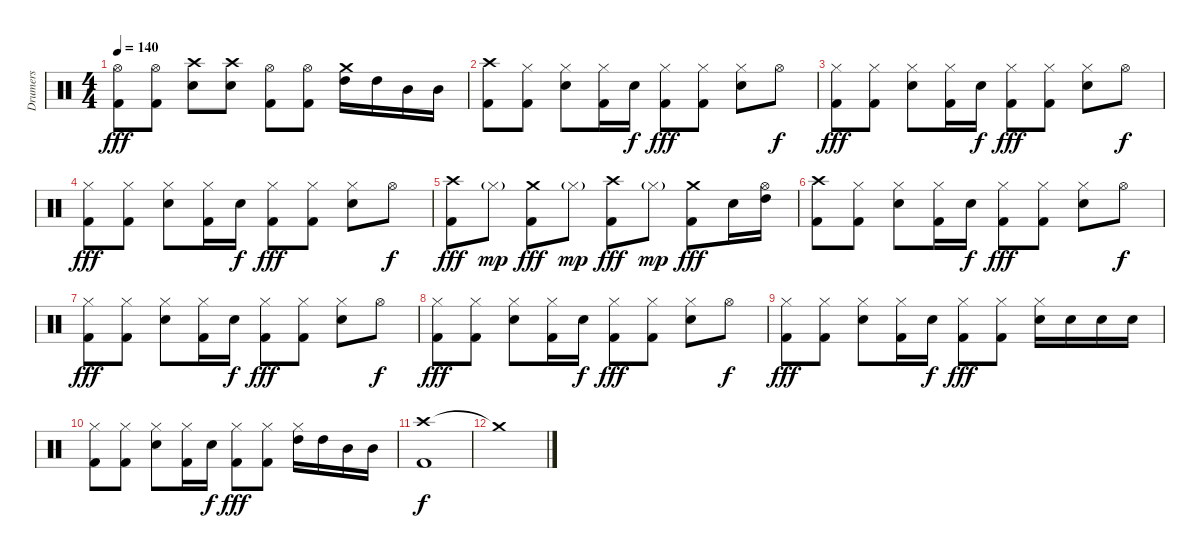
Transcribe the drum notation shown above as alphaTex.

\track ("Drumers" "Drumers") {instrument percussion}
\staff {score}
\articulation defaults
\ts (4 4)
\tempo 140
\clef neutral
\ks c
("Hi-Hat (open)" "Kick (hit) 2").8{dy fff} ("Hi-Hat (open)" "Kick (hit) 2").8 ("Crash high (hit)" "Electric Snare (hit)").8 ("Crash high (hit)" "Electric Snare (hit)").8 ("Hi-Hat (open)" "Kick (hit) 2").8 ("Hi-Hat (open)" "Kick (hit) 2").8 ("Crash medium (hit)" "High Tom (hit)").16 "High Tom (hit)".16 "Mid Tom (hit)".16 "Mid Tom (hit)".16 |
("Crash high (hit)" "Kick (hit) 2").8 ("Hi-Hat (closed)" "Kick (hit) 2").8 ("Hi-Hat (closed)" "Electric Snare (hit)").8 ("Hi-Hat (closed)" "Kick (hit) 2").16 "Electric Snare (hit)".16{dy f} ("Hi-Hat (closed)" "Kick (hit) 2").8{dy fff} ("Hi-Hat (closed)" "Kick (hit) 2").8 ("Hi-Hat (closed)" "Electric Snare (hit)").8 "Hi-Hat (open)".8{dy f} |
("Hi-Hat (closed)" "Kick (hit) 2").8{dy fff} ("Hi-Hat (closed)" "Kick (hit) 2").8 ("Hi-Hat (closed)" "Electric Snare (hit)").8 ("Hi-Hat (closed)" "Kick (hit) 2").16 "Electric Snare (hit)".16{dy f} ("Hi-Hat (closed)" "Kick (hit) 2").8{dy fff} ("Hi-Hat (closed)" "Kick (hit) 2").8 ("Hi-Hat (closed)" "Electric Snare (hit)").8 "Hi-Hat (open)".8{dy f} |
("Hi-Hat (closed)" "Kick (hit) 2").8{dy fff} ("Hi-Hat (closed)" "Kick (hit) 2").8 ("Hi-Hat (closed)" "Electric Snare (hit)").8 ("Hi-Hat (closed)" "Kick (hit) 2").16 "Electric Snare (hit)".16{dy f} ("Hi-Hat (closed)" "Kick (hit) 2").8{dy fff} ("Hi-Hat (closed)" "Kick (hit) 2").8 ("Hi-Hat (closed)" "Electric Snare (hit)").8 "Hi-Hat (open)".8{dy f} |
("Crash high (hit)" "Kick (hit) 2").8{dy fff} "Hi-Hat (closed)"{g}.8{dy mp} ("Crash medium (hit)" "Kick (hit) 2").8{dy fff} "Hi-Hat (closed)"{g}.8{dy mp} ("Crash high (hit)" "Kick (hit) 2").8{dy fff} "Hi-Hat (closed)"{g}.8{dy mp} ("Crash medium (hit)" "Kick (hit) 2").8{dy fff} "Electric Snare (hit)".16 ("Hi-Hat (open)" "High Tom (hit)").16 |
("Crash high (hit)" "Kick (hit) 2").8 ("Hi-Hat (closed)" "Kick (hit) 2").8 ("Hi-Hat (closed)" "Electric Snare (hit)").8 ("Hi-Hat (closed)" "Kick (hit) 2").16 "Electric Snare (hit)".16{dy f} ("Hi-Hat (closed)" "Kick (hit) 2").8{dy fff} ("Hi-Hat (closed)" "Kick (hit) 2").8 ("Hi-Hat (closed)" "Electric Snare (hit)").8 "Hi-Hat (open)".8{dy f} |
("Hi-Hat (closed)" "Kick (hit) 2").8{dy fff} ("Hi-Hat (closed)" "Kick (hit) 2").8 ("Hi-Hat (closed)" "Electric Snare (hit)").8 ("Hi-Hat (closed)" "Kick (hit) 2").16 "Electric Snare (hit)".16{dy f} ("Hi-Hat (closed)" "Kick (hit) 2").8{dy fff} ("Hi-Hat (closed)" "Kick (hit) 2").8 ("Hi-Hat (closed)" "Electric Snare (hit)").8 "Hi-Hat (open)".8{dy f} |
("Hi-Hat (closed)" "Kick (hit) 2").8{dy fff} ("Hi-Hat (closed)" "Kick (hit) 2").8 ("Hi-Hat (closed)" "Electric Snare (hit)").8 ("Hi-Hat (closed)" "Kick (hit) 2").16 "Electric Snare (hit)".16{dy f} ("Hi-Hat (closed)" "Kick (hit) 2").8{dy fff} ("Hi-Hat (closed)" "Kick (hit) 2").8 ("Hi-Hat (closed)" "Electric Snare (hit)").8 "Hi-Hat (open)".8{dy f} |
("Hi-Hat (closed)" "Kick (hit) 2").8{dy fff} ("Hi-Hat (closed)" "Kick (hit) 2").8 ("Hi-Hat (closed)" "Electric Snare (hit)").8 ("Hi-Hat (closed)" "Kick (hit) 2").16 "Electric Snare (hit)".16{dy f} ("Hi-Hat (closed)" "Kick (hit) 2").8{dy fff} ("Hi-Hat (closed)" "Kick (hit) 2").8 ("Hi-Hat (closed)" "Electric Snare (hit)").16 "Electric Snare (hit)".16 "Electric Snare (hit)".16 "Electric Snare (hit)".16 |
("Hi-Hat (closed)" "Kick (hit) 2").8 ("Hi-Hat (closed)" "Kick (hit) 2").8 ("Hi-Hat (closed)" "Electric Snare (hit)").8 ("Hi-Hat (closed)" "Kick (hit) 2").16 "Electric Snare (hit)".16{dy f} ("Hi-Hat (closed)" "Kick (hit) 2").8{dy fff} ("Hi-Hat (closed)" "Kick (hit) 2").8 ("Hi-Hat (closed)" "High Tom (hit)").16 "High Tom (hit)".16 "Mid Tom (hit)".16 "Mid Tom (hit)".16 |
("Crash high (hit)" "Kick (hit) 2").1{dy f} |
"Crash medium (hit)"{t}.1
